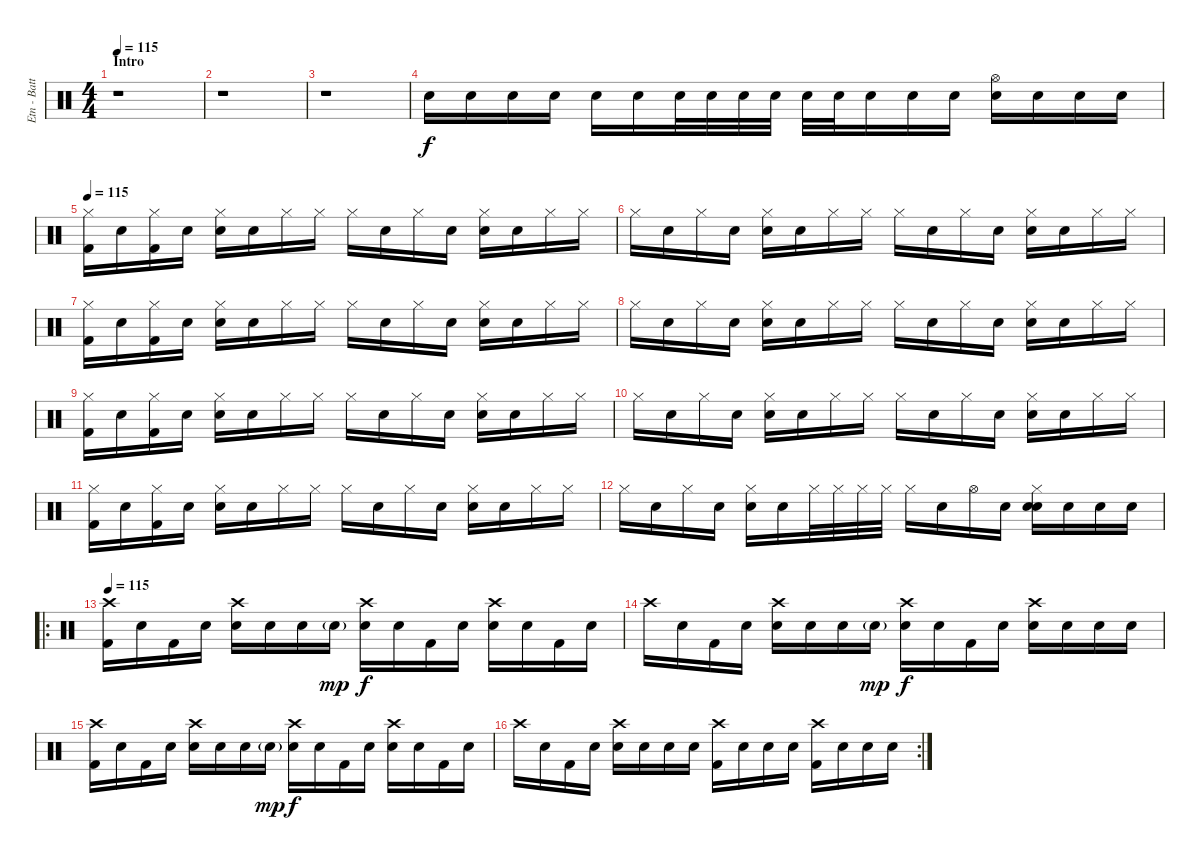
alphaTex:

\track ("Etn - Batterie" "Etn - Batt") {instrument percussion}
\staff {score}
\articulation defaults
\ts (4 4)
\section ("" "Intro")
\tempo 115
\clef neutral
\ks c
r.1{dy f volume 16 balance 8} |
r.1 |
r.1 |
"Snare (hit)".16 "Snare (hit)".16 "Snare (hit)".16 "Snare (hit)".16 "Snare (hit)".16 "Snare (hit)".16 "Electric Snare (hit)".32 "Electric Snare (hit)".32 "Electric Snare (hit)".32 "Electric Snare (hit)".32 "Electric Snare (hit)".32 "Snare (hit)".32 "Electric Snare (hit)".16 "Snare (hit)".16 "Electric Snare (hit)".16 ("Hi-Hat (open)" "Electric Snare (hit)").16 "Snare (hit)".16 "Electric Snare (hit)".16 "Snare (hit)".16 |
\section ("" "")
\tempo 115
("Hi-Hat (closed)" "Kick (hit) 2").16{volume 16 balance 8} "Snare (hit)".16 ("Hi-Hat (closed)" "Kick (hit) 2").16 "Snare (hit)".16 ("Hi-Hat (closed)" "Electric Snare (hit)").16 "Snare (hit)".16 "Hi-Hat (closed)".16 "Hi-Hat (closed)".16 "Hi-Hat (closed)".16 "Snare (hit)".16 "Hi-Hat (closed)".16 "Snare (hit)".16 ("Hi-Hat (closed)" "Electric Snare (hit)").16 "Snare (hit)".16 "Hi-Hat (closed)".16 "Hi-Hat (closed)".16 |
"Hi-Hat (closed)".16 "Snare (hit)".16 "Hi-Hat (closed)".16 "Snare (hit)".16 ("Hi-Hat (closed)" "Electric Snare (hit)").16 "Snare (hit)".16 "Hi-Hat (closed)".16 "Hi-Hat (closed)".16 "Hi-Hat (closed)".16 "Snare (hit)".16 "Hi-Hat (closed)".16 "Snare (hit)".16 ("Hi-Hat (closed)" "Electric Snare (hit)").16 "Snare (hit)".16 "Hi-Hat (closed)".16 "Hi-Hat (closed)".16 |
("Hi-Hat (closed)" "Kick (hit) 2").16 "Snare (hit)".16 ("Hi-Hat (closed)" "Kick (hit) 2").16 "Snare (hit)".16 ("Hi-Hat (closed)" "Electric Snare (hit)").16 "Snare (hit)".16 "Hi-Hat (closed)".16 "Hi-Hat (closed)".16 "Hi-Hat (closed)".16 "Snare (hit)".16 "Hi-Hat (closed)".16 "Snare (hit)".16 ("Hi-Hat (closed)" "Electric Snare (hit)").16 "Snare (hit)".16 "Hi-Hat (closed)".16 "Hi-Hat (closed)".16 |
"Hi-Hat (closed)".16 "Snare (hit)".16 "Hi-Hat (closed)".16 "Snare (hit)".16 ("Hi-Hat (closed)" "Electric Snare (hit)").16 "Snare (hit)".16 "Hi-Hat (closed)".16 "Hi-Hat (closed)".16 "Hi-Hat (closed)".16 "Snare (hit)".16 "Hi-Hat (closed)".16 "Snare (hit)".16 ("Hi-Hat (closed)" "Electric Snare (hit)").16 "Snare (hit)".16 "Hi-Hat (closed)".16 "Hi-Hat (closed)".16 |
("Hi-Hat (closed)" "Kick (hit) 2").16 "Snare (hit)".16 ("Hi-Hat (closed)" "Kick (hit) 2").16 "Snare (hit)".16 ("Hi-Hat (closed)" "Electric Snare (hit)").16 "Snare (hit)".16 "Hi-Hat (closed)".16 "Hi-Hat (closed)".16 "Hi-Hat (closed)".16 "Snare (hit)".16 "Hi-Hat (closed)".16 "Snare (hit)".16 ("Hi-Hat (closed)" "Electric Snare (hit)").16 "Snare (hit)".16 "Hi-Hat (closed)".16 "Hi-Hat (closed)".16 |
"Hi-Hat (closed)".16 "Snare (hit)".16 "Hi-Hat (closed)".16 "Snare (hit)".16 ("Hi-Hat (closed)" "Electric Snare (hit)").16 "Snare (hit)".16 "Hi-Hat (closed)".16 "Hi-Hat (closed)".16 "Hi-Hat (closed)".16 "Snare (hit)".16 "Hi-Hat (closed)".16 "Snare (hit)".16 ("Hi-Hat (closed)" "Electric Snare (hit)").16 "Snare (hit)".16 "Hi-Hat (closed)".16 "Hi-Hat (closed)".16 |
("Hi-Hat (closed)" "Kick (hit) 2").16 "Snare (hit)".16 ("Hi-Hat (closed)" "Kick (hit) 2").16 "Snare (hit)".16 ("Hi-Hat (closed)" "Electric Snare (hit)").16 "Snare (hit)".16 "Hi-Hat (closed)".16 "Hi-Hat (closed)".16 "Hi-Hat (closed)".16 "Snare (hit)".16 "Hi-Hat (closed)".16 "Snare (hit)".16 ("Hi-Hat (closed)" "Electric Snare (hit)").16 "Snare (hit)".16 "Hi-Hat (closed)".16 "Hi-Hat (closed)".16 |
"Hi-Hat (closed)".16 "Snare (hit)".16 "Hi-Hat (closed)".16 "Snare (hit)".16 ("Hi-Hat (closed)" "Electric Snare (hit)").16 "Snare (hit)".16 "Hi-Hat (closed)".32 "Hi-Hat (closed)".32 "Hi-Hat (closed)".32 "Hi-Hat (closed)".32 "Hi-Hat (closed)".16 "Snare (hit)".16 "Hi-Hat (open)".16 "Snare (hit)".16 ("Hi-Hat (closed)" "Electric Snare (hit)" "Snare (hit) 2").16 "Snare (hit)".16 "Snare (hit)".16 "Snare (hit)".16 |
\ro
\section ("" "")
\tempo 115
("Crash high (hit)" "Kick (hit) 2").16{volume 16 balance 8} "Snare (hit)".16 "Kick (hit) 2".16 "Snare (hit)".16 ("Crash high (hit)" "Electric Snare (hit)").16 "Snare (hit)".16 "Snare (hit)".16 "Electric Snare (hit)"{g}.16{dy mp} ("Crash high (hit)" "Electric Snare (hit)").16{dy f} "Snare (hit)".16 "Kick (hit) 2".16 "Snare (hit)".16 ("Crash high (hit)" "Electric Snare (hit)").16 "Snare (hit)".16 "Kick (hit) 2".16 "Snare (hit)".16 |
"Crash high (hit)".16 "Snare (hit)".16 "Kick (hit) 2".16 "Snare (hit)".16 ("Crash high (hit)" "Electric Snare (hit)").16 "Snare (hit)".16 "Snare (hit)".16 "Electric Snare (hit)"{g}.16{dy mp} ("Crash high (hit)" "Electric Snare (hit)").16{dy f} "Snare (hit)".16 "Kick (hit) 2".16 "Snare (hit)".16 ("Crash high (hit)" "Electric Snare (hit)").16 "Snare (hit)".16 "Electric Snare (hit)".16 "Electric Snare (hit)".16 |
("Crash high (hit)" "Kick (hit) 2").16 "Snare (hit)".16 "Kick (hit) 2".16 "Snare (hit)".16 ("Crash high (hit)" "Electric Snare (hit)").16 "Snare (hit)".16 "Snare (hit)".16 "Electric Snare (hit)"{g}.16{dy mp} ("Crash high (hit)" "Electric Snare (hit)").16{dy f} "Snare (hit)".16 "Kick (hit) 2".16 "Snare (hit)".16 ("Crash high (hit)" "Electric Snare (hit)").16 "Snare (hit)".16 "Kick (hit) 2".16 "Snare (hit)".16 |
\rc 2 "Crash high (hit)".16 "Snare (hit)".16 "Kick (hit) 2".16 "Snare (hit)".16
("Crash high (hit)" "Electric Snare (hit)").16 "Snare (hit)".16 "Snare (hit)".16 "Snare (hit)".16 ("Crash high (hit)" "Kick (hit) 2").16 "Snare (hit)".16 "Electric Snare (hit)".16 "Snare (hit)".16 ("Crash high (hit)" "Kick (hit) 2").16 "Snare (hit)".16 "Electric Snare (hit)".16 "Snare (hit)".16
